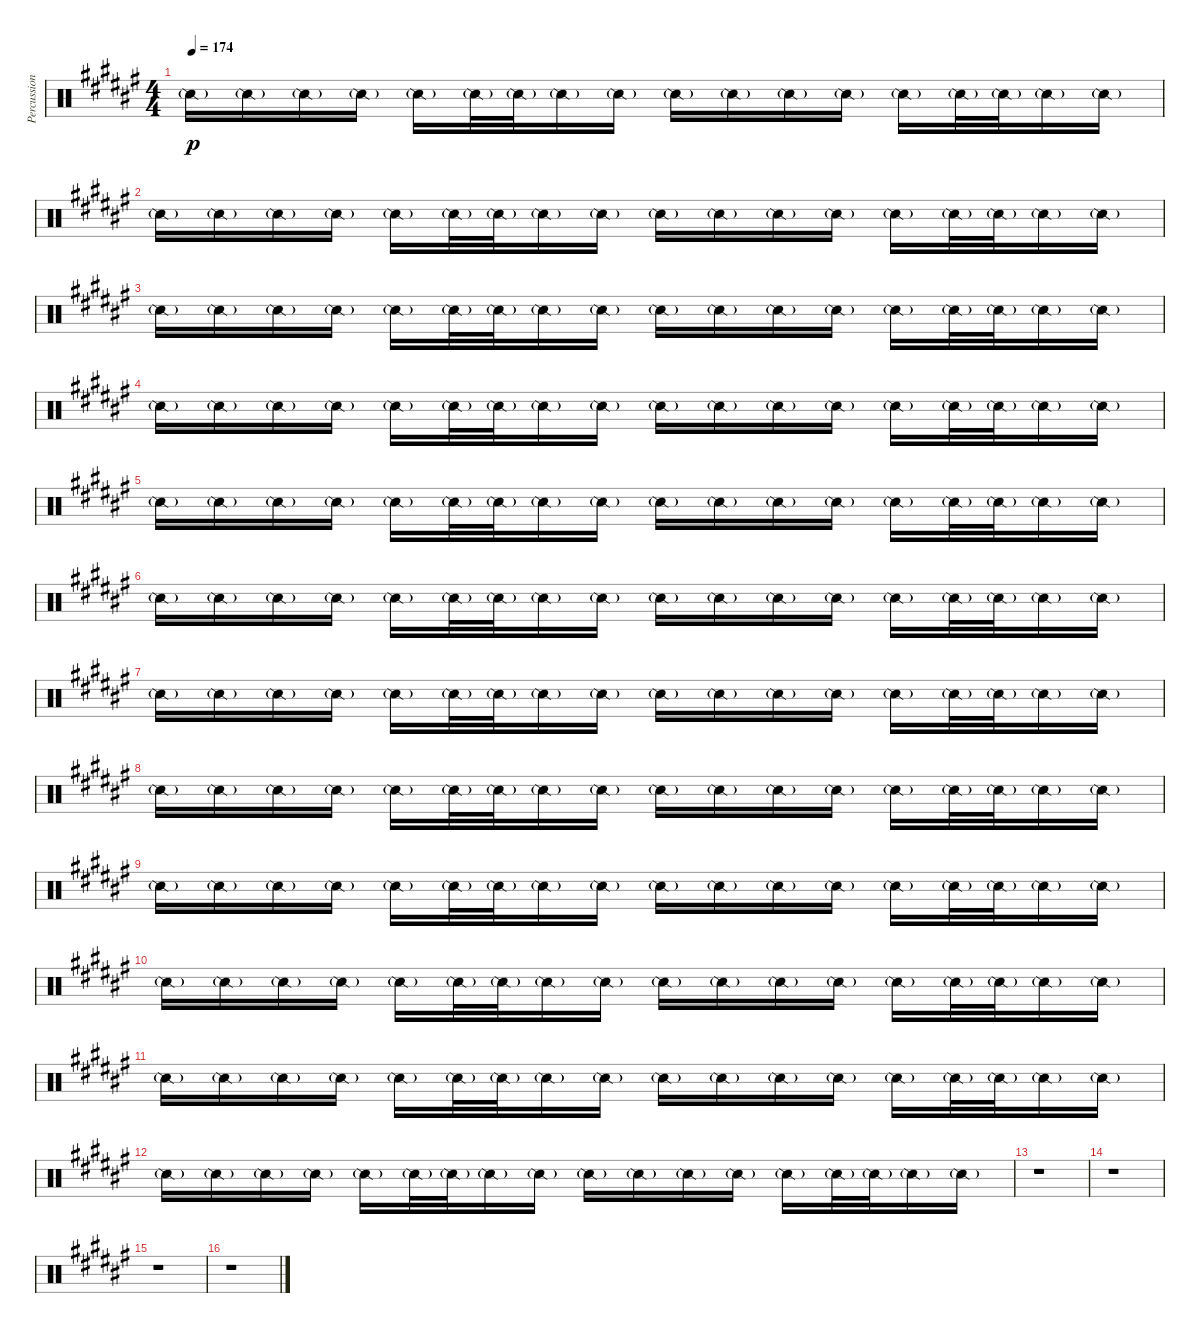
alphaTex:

\track ("Percussion I" "Percussion") {instrument percussion}
\staff {score}
\articulation defaults
\ts (4 4)
\tempo 174
\clef neutral
\ks f# "Snare (side stick) 2"{g}.16{dy p} "Snare (side stick) 2"{g}.16 "Snare (side stick) 2"{g}.16 "Snare (side stick) 2"{g}.16 "Snare (side stick) 2"{g}.16 "Snare (side stick) 2"{g}.32 "Snare (side stick) 2"{g}.32 "Snare (side stick) 2"{g}.16 "Snare (side stick) 2"{g}.16 "Snare (side stick) 2"{g}.16 "Snare (side stick) 2"{g}.16 "Snare (side stick) 2"{g}.16 "Snare (side stick) 2"{g}.16 "Snare (side stick) 2"{g}.16 "Snare (side stick) 2"{g}.32 "Snare (side stick) 2"{g}.32 "Snare (side stick) 2"{g}.16 "Snare (side stick) 2"{g}.16
|
"Snare (side stick) 2"{g}.16 "Snare (side stick) 2"{g}.16 "Snare (side stick) 2"{g}.16 "Snare (side stick) 2"{g}.16 "Snare (side stick) 2"{g}.16 "Snare (side stick) 2"{g}.32 "Snare (side stick) 2"{g}.32 "Snare (side stick) 2"{g}.16 "Snare (side stick) 2"{g}.16 "Snare (side stick) 2"{g}.16 "Snare (side stick) 2"{g}.16 "Snare (side stick) 2"{g}.16 "Snare (side stick) 2"{g}.16 "Snare (side stick) 2"{g}.16 "Snare (side stick) 2"{g}.32 "Snare (side stick) 2"{g}.32 "Snare (side stick) 2"{g}.16 "Snare (side stick) 2"{g}.16 |
"Snare (side stick) 2"{g}.16 "Snare (side stick) 2"{g}.16 "Snare (side stick) 2"{g}.16 "Snare (side stick) 2"{g}.16 "Snare (side stick) 2"{g}.16 "Snare (side stick) 2"{g}.32 "Snare (side stick) 2"{g}.32 "Snare (side stick) 2"{g}.16 "Snare (side stick) 2"{g}.16 "Snare (side stick) 2"{g}.16 "Snare (side stick) 2"{g}.16 "Snare (side stick) 2"{g}.16 "Snare (side stick) 2"{g}.16 "Snare (side stick) 2"{g}.16 "Snare (side stick) 2"{g}.32 "Snare (side stick) 2"{g}.32 "Snare (side stick) 2"{g}.16 "Snare (side stick) 2"{g}.16 |
"Snare (side stick) 2"{g}.16 "Snare (side stick) 2"{g}.16 "Snare (side stick) 2"{g}.16 "Snare (side stick) 2"{g}.16 "Snare (side stick) 2"{g}.16 "Snare (side stick) 2"{g}.32 "Snare (side stick) 2"{g}.32 "Snare (side stick) 2"{g}.16 "Snare (side stick) 2"{g}.16 "Snare (side stick) 2"{g}.16 "Snare (side stick) 2"{g}.16 "Snare (side stick) 2"{g}.16 "Snare (side stick) 2"{g}.16 "Snare (side stick) 2"{g}.16 "Snare (side stick) 2"{g}.32 "Snare (side stick) 2"{g}.32 "Snare (side stick) 2"{g}.16 "Snare (side stick) 2"{g}.16 |
"Snare (side stick) 2"{g}.16 "Snare (side stick) 2"{g}.16 "Snare (side stick) 2"{g}.16 "Snare (side stick) 2"{g}.16 "Snare (side stick) 2"{g}.16 "Snare (side stick) 2"{g}.32 "Snare (side stick) 2"{g}.32 "Snare (side stick) 2"{g}.16 "Snare (side stick) 2"{g}.16 "Snare (side stick) 2"{g}.16 "Snare (side stick) 2"{g}.16 "Snare (side stick) 2"{g}.16 "Snare (side stick) 2"{g}.16 "Snare (side stick) 2"{g}.16 "Snare (side stick) 2"{g}.32 "Snare (side stick) 2"{g}.32 "Snare (side stick) 2"{g}.16 "Snare (side stick) 2"{g}.16 |
"Snare (side stick) 2"{g}.16 "Snare (side stick) 2"{g}.16 "Snare (side stick) 2"{g}.16 "Snare (side stick) 2"{g}.16 "Snare (side stick) 2"{g}.16 "Snare (side stick) 2"{g}.32 "Snare (side stick) 2"{g}.32 "Snare (side stick) 2"{g}.16 "Snare (side stick) 2"{g}.16 "Snare (side stick) 2"{g}.16 "Snare (side stick) 2"{g}.16 "Snare (side stick) 2"{g}.16 "Snare (side stick) 2"{g}.16 "Snare (side stick) 2"{g}.16 "Snare (side stick) 2"{g}.32 "Snare (side stick) 2"{g}.32 "Snare (side stick) 2"{g}.16 "Snare (side stick) 2"{g}.16 |
"Snare (side stick) 2"{g}.16 "Snare (side stick) 2"{g}.16 "Snare (side stick) 2"{g}.16 "Snare (side stick) 2"{g}.16 "Snare (side stick) 2"{g}.16 "Snare (side stick) 2"{g}.32 "Snare (side stick) 2"{g}.32 "Snare (side stick) 2"{g}.16 "Snare (side stick) 2"{g}.16 "Snare (side stick) 2"{g}.16 "Snare (side stick) 2"{g}.16 "Snare (side stick) 2"{g}.16 "Snare (side stick) 2"{g}.16 "Snare (side stick) 2"{g}.16 "Snare (side stick) 2"{g}.32 "Snare (side stick) 2"{g}.32 "Snare (side stick) 2"{g}.16 "Snare (side stick) 2"{g}.16 |
"Snare (side stick) 2"{g}.16 "Snare (side stick) 2"{g}.16 "Snare (side stick) 2"{g}.16 "Snare (side stick) 2"{g}.16 "Snare (side stick) 2"{g}.16 "Snare (side stick) 2"{g}.32 "Snare (side stick) 2"{g}.32 "Snare (side stick) 2"{g}.16 "Snare (side stick) 2"{g}.16 "Snare (side stick) 2"{g}.16 "Snare (side stick) 2"{g}.16 "Snare (side stick) 2"{g}.16 "Snare (side stick) 2"{g}.16 "Snare (side stick) 2"{g}.16 "Snare (side stick) 2"{g}.32 "Snare (side stick) 2"{g}.32 "Snare (side stick) 2"{g}.16 "Snare (side stick) 2"{g}.16 |
"Snare (side stick) 2"{g}.16 "Snare (side stick) 2"{g}.16 "Snare (side stick) 2"{g}.16 "Snare (side stick) 2"{g}.16 "Snare (side stick) 2"{g}.16 "Snare (side stick) 2"{g}.32 "Snare (side stick) 2"{g}.32 "Snare (side stick) 2"{g}.16 "Snare (side stick) 2"{g}.16 "Snare (side stick) 2"{g}.16 "Snare (side stick) 2"{g}.16 "Snare (side stick) 2"{g}.16 "Snare (side stick) 2"{g}.16 "Snare (side stick) 2"{g}.16 "Snare (side stick) 2"{g}.32 "Snare (side stick) 2"{g}.32 "Snare (side stick) 2"{g}.16 "Snare (side stick) 2"{g}.16 |
"Snare (side stick) 2"{g}.16 "Snare (side stick) 2"{g}.16 "Snare (side stick) 2"{g}.16 "Snare (side stick) 2"{g}.16 "Snare (side stick) 2"{g}.16 "Snare (side stick) 2"{g}.32 "Snare (side stick) 2"{g}.32 "Snare (side stick) 2"{g}.16 "Snare (side stick) 2"{g}.16 "Snare (side stick) 2"{g}.16 "Snare (side stick) 2"{g}.16 "Snare (side stick) 2"{g}.16 "Snare (side stick) 2"{g}.16 "Snare (side stick) 2"{g}.16 "Snare (side stick) 2"{g}.32 "Snare (side stick) 2"{g}.32 "Snare (side stick) 2"{g}.16 "Snare (side stick) 2"{g}.16 |
"Snare (side stick) 2"{g}.16 "Snare (side stick) 2"{g}.16 "Snare (side stick) 2"{g}.16 "Snare (side stick) 2"{g}.16 "Snare (side stick) 2"{g}.16 "Snare (side stick) 2"{g}.32 "Snare (side stick) 2"{g}.32 "Snare (side stick) 2"{g}.16 "Snare (side stick) 2"{g}.16 "Snare (side stick) 2"{g}.16 "Snare (side stick) 2"{g}.16 "Snare (side stick) 2"{g}.16 "Snare (side stick) 2"{g}.16 "Snare (side stick) 2"{g}.16 "Snare (side stick) 2"{g}.32 "Snare (side stick) 2"{g}.32 "Snare (side stick) 2"{g}.16 "Snare (side stick) 2"{g}.16 |
"Snare (side stick) 2"{g}.16 "Snare (side stick) 2"{g}.16 "Snare (side stick) 2"{g}.16 "Snare (side stick) 2"{g}.16 "Snare (side stick) 2"{g}.16 "Snare (side stick) 2"{g}.32 "Snare (side stick) 2"{g}.32 "Snare (side stick) 2"{g}.16 "Snare (side stick) 2"{g}.16 "Snare (side stick) 2"{g}.16 "Snare (side stick) 2"{g}.16 "Snare (side stick) 2"{g}.16 "Snare (side stick) 2"{g}.16 "Snare (side stick) 2"{g}.16 "Snare (side stick) 2"{g}.32 "Snare (side stick) 2"{g}.32 "Snare (side stick) 2"{g}.16 "Snare (side stick) 2"{g}.16 |
r.1 |
r.1 |
r.1 |
r.1
